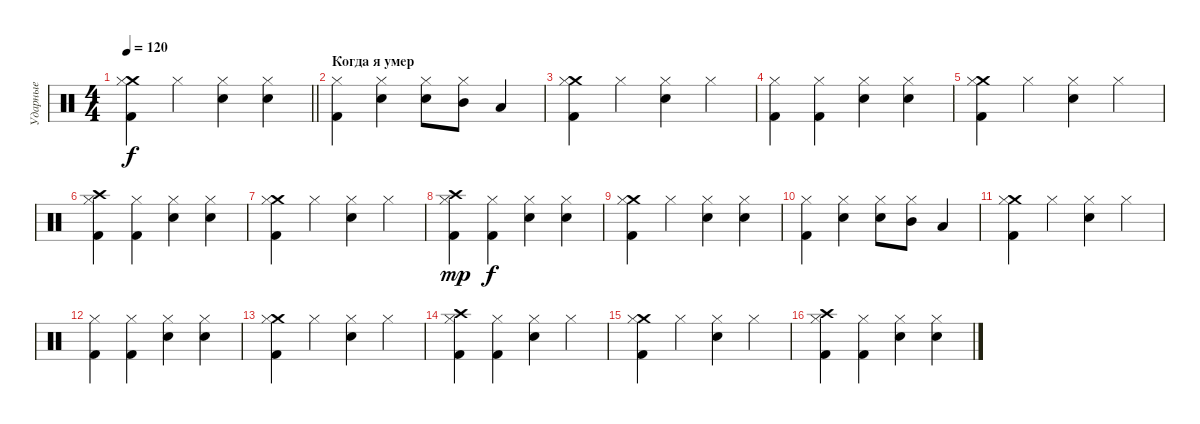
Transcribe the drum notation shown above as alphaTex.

\track ("Ударные" "Ударные") {instrument percussion}
\staff {score}
\articulation defaults
\ts (4 4)
\tempo 120
\clef neutral
\barLineRight lightlight
\ks c
("Crash medium (hit)" "Hi-Hat (closed)" "Kick (hit) 2").4{dy f} "Hi-Hat (closed)".4 ("Snare (hit) 2" "Hi-Hat (closed)").4 ("Snare (hit) 2" "Hi-Hat (closed)").4 |
\section ("" "Когда я умер")
("Hi-Hat (closed)" "Kick (hit) 2").4 ("Snare (hit) 2" "Hi-Hat (closed)").4 ("Snare (hit) 2" "Hi-Hat (closed)").8 ("Mid Tom (hit)" "Hi-Hat (closed)").8 "Low Tom (hit)".4 |
("Crash medium (hit)" "Hi-Hat (closed)" "Kick (hit) 2").4 "Hi-Hat (closed)".4 ("Snare (hit) 2" "Hi-Hat (closed)").4 "Hi-Hat (closed)".4 |
("Hi-Hat (closed)" "Kick (hit) 2").4 ("Hi-Hat (closed)" "Kick (hit) 2").4 ("Snare (hit) 2" "Hi-Hat (closed)").4 ("Snare (hit) 2" "Hi-Hat (closed)").4 |
("Crash medium (hit)" "Hi-Hat (closed)" "Kick (hit) 2").4 "Hi-Hat (closed)".4 ("Snare (hit) 2" "Hi-Hat (closed)").4 "Hi-Hat (closed)".4 |
("Crash high (hit)" "Hi-Hat (closed)" "Kick (hit) 2").4 ("Hi-Hat (closed)" "Kick (hit) 2").4 ("Snare (hit) 2" "Hi-Hat (closed)").4 ("Snare (hit) 2" "Hi-Hat (closed)").4 |
("Crash medium (hit)" "Hi-Hat (closed)" "Kick (hit) 2").4 "Hi-Hat (closed)".4 ("Snare (hit) 2" "Hi-Hat (closed)").4 "Hi-Hat (closed)".4 |
("Crash high (hit)" "Hi-Hat (closed)" "Kick (hit) 2").4{dy mp} ("Hi-Hat (closed)" "Kick (hit) 2").4{dy f} ("Snare (hit) 2" "Hi-Hat (closed)").4 ("Snare (hit) 2" "Hi-Hat (closed)").4 |
("Crash medium (hit)" "Hi-Hat (closed)" "Kick (hit) 2").4 "Hi-Hat (closed)".4 ("Snare (hit) 2" "Hi-Hat (closed)").4 ("Snare (hit) 2" "Hi-Hat (closed)").4 |
("Hi-Hat (closed)" "Kick (hit) 2").4 ("Snare (hit) 2" "Hi-Hat (closed)").4 ("Snare (hit) 2" "Hi-Hat (closed)").8 ("Mid Tom (hit)" "Hi-Hat (closed)").8 "Low Tom (hit)".4 |
("Crash medium (hit)" "Hi-Hat (closed)" "Kick (hit) 2").4 "Hi-Hat (closed)".4 ("Snare (hit) 2" "Hi-Hat (closed)").4 "Hi-Hat (closed)".4 |
("Hi-Hat (closed)" "Kick (hit) 2").4 ("Hi-Hat (closed)" "Kick (hit) 2").4 ("Snare (hit) 2" "Hi-Hat (closed)").4 ("Snare (hit) 2" "Hi-Hat (closed)").4 |
("Crash medium (hit)" "Hi-Hat (closed)" "Kick (hit) 2").4 "Hi-Hat (closed)".4 ("Snare (hit) 2" "Hi-Hat (closed)").4 "Hi-Hat (closed)".4 |
("Crash high (hit)" "Hi-Hat (closed)" "Kick (hit) 2").4 ("Hi-Hat (closed)" "Kick (hit) 2").4 ("Snare (hit) 2" "Hi-Hat (closed)").4 "Hi-Hat (closed)".4 |
("Crash medium (hit)" "Hi-Hat (closed)" "Kick (hit) 2").4 "Hi-Hat (closed)".4 ("Snare (hit) 2" "Hi-Hat (closed)").4 "Hi-Hat (closed)".4 |
("Crash high (hit)" "Hi-Hat (closed)" "Kick (hit) 2").4 ("Hi-Hat (closed)" "Kick (hit) 2").4 ("Snare (hit) 2" "Hi-Hat (closed)").4 ("Snare (hit) 2" "Hi-Hat (closed)").4
